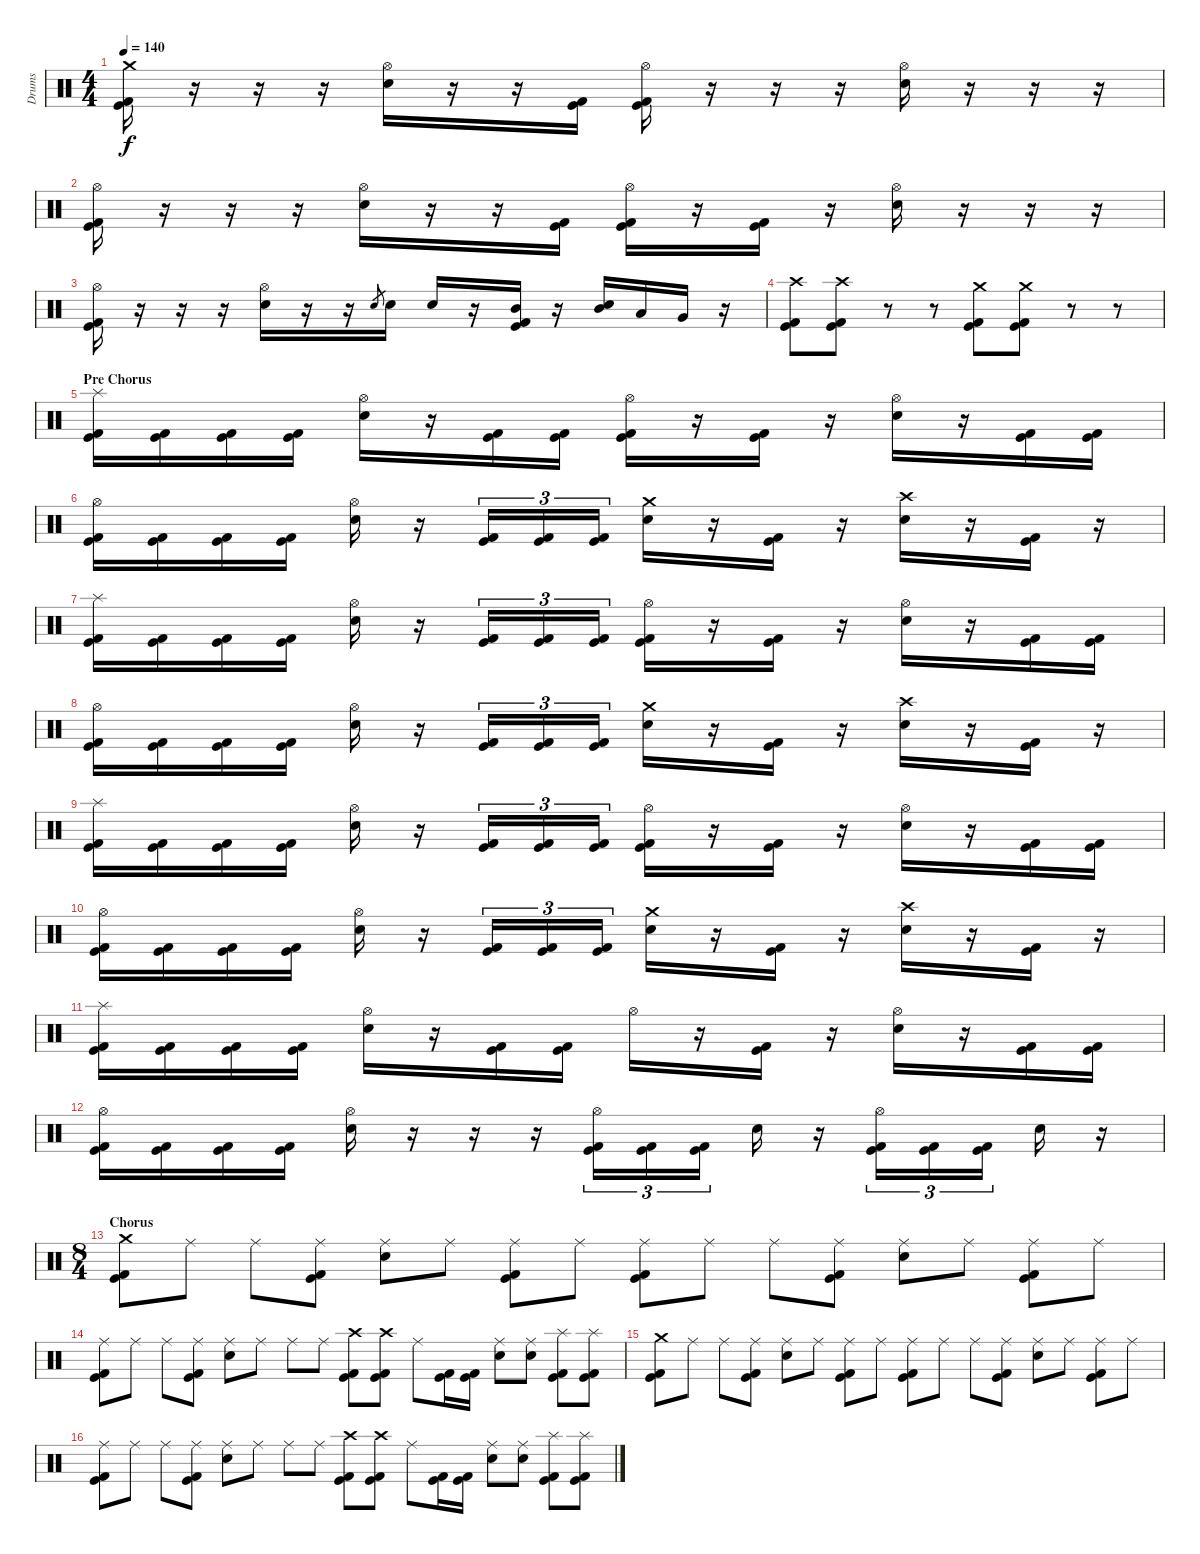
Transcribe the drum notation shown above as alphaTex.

\track ("Drums" "Drums") {instrument percussion}
\staff {score}
\articulation defaults
\ts (4 4)
\tempo 140
\clef neutral
\ks c
("Crash medium (hit)" "Kick (hit)" "Kick (hit) 2").16{dy f} r.16 r.16 r.16 ("Hi-Hat (open)" "Electric Snare (hit)").16 r.16 r.16 ("Kick (hit)" "Kick (hit) 2").16 ("Hi-Hat (open)" "Kick (hit)" "Kick (hit) 2").16 r.16 r.16 r.16 ("Hi-Hat (open)" "Electric Snare (hit)").16 r.16 r.16 r.16 |
("Hi-Hat (open)" "Kick (hit)" "Kick (hit) 2").16 r.16 r.16 r.16 ("Hi-Hat (open)" "Electric Snare (hit)").16 r.16 r.16 ("Kick (hit)" "Kick (hit) 2").16 ("Hi-Hat (open)" "Kick (hit)" "Kick (hit) 2").16 r.16 ("Kick (hit)" "Kick (hit) 2").16 r.16 ("Hi-Hat (open)" "Electric Snare (hit)").16 r.16 r.16 r.16 |
("Hi-Hat (open)" "Kick (hit)" "Kick (hit) 2").16 r.16 r.16 r.16 ("Hi-Hat (open)" "Electric Snare (hit)").16 r.16 r.16 "Electric Snare (hit)".8{gr} "Electric Snare (hit)".16 "Electric Snare (hit)".16 r.16 ("Mid Tom (hit)" "Kick (hit)" "Kick (hit) 2").16 r.16 ("Mid Tom (hit)" "Electric Snare (hit)").16 "Low Tom (hit)".16 "Very Low Tom (hit)".16 r.16 |
("Crash high (hit)" "Kick (hit)" "Kick (hit) 2").8 ("Crash high (hit)" "Kick (hit)" "Kick (hit) 2").8 r.8 r.8 ("Crash medium (hit)" "Kick (hit)" "Kick (hit) 2").8 ("Crash medium (hit)" "Kick (hit)" "Kick (hit) 2").8 r.8 r.8 |
\section ("" "Pre Chorus")
("Splash (hit)" "Kick (hit)" "Kick (hit) 2").16 ("Kick (hit)" "Kick (hit) 2").16 ("Kick (hit)" "Kick (hit) 2").16 ("Kick (hit)" "Kick (hit) 2").16 ("Hi-Hat (open)" "Electric Snare (hit)").16 r.16 ("Kick (hit)" "Kick (hit) 2").16 ("Kick (hit)" "Kick (hit) 2").16 ("Hi-Hat (open)" "Kick (hit)" "Kick (hit) 2").16 r.16 ("Kick (hit)" "Kick (hit) 2").16 r.16 ("Hi-Hat (open)" "Electric Snare (hit)").16 r.16 ("Kick (hit)" "Kick (hit) 2").16 ("Kick (hit)" "Kick (hit) 2").16 |
("Hi-Hat (open)" "Kick (hit)" "Kick (hit) 2").16 ("Kick (hit)" "Kick (hit) 2").16 ("Kick (hit)" "Kick (hit) 2").16 ("Kick (hit)" "Kick (hit) 2").16 ("Hi-Hat (open)" "Electric Snare (hit)").16 r.16 ("Kick (hit)" "Kick (hit) 2").16{tu (3 2)} ("Kick (hit)" "Kick (hit) 2").16{tu (3 2)} ("Kick (hit)" "Kick (hit) 2").16{tu (3 2)} ("Crash medium (hit)" "Electric Snare (hit)").16 r.16 ("Kick (hit)" "Kick (hit) 2").16 r.16 ("Crash high (hit)" "Electric Snare (hit)").16 r.16 ("Kick (hit)" "Kick (hit) 2").16 r.16 |
("Splash (hit)" "Kick (hit)" "Kick (hit) 2").16 ("Kick (hit)" "Kick (hit) 2").16 ("Kick (hit)" "Kick (hit) 2").16 ("Kick (hit)" "Kick (hit) 2").16 ("Hi-Hat (open)" "Electric Snare (hit)").16 r.16 ("Kick (hit)" "Kick (hit) 2").16{tu (3 2)} ("Kick (hit)" "Kick (hit) 2").16{tu (3 2)} ("Kick (hit)" "Kick (hit) 2").16{tu (3 2)} ("Hi-Hat (open)" "Kick (hit)" "Kick (hit) 2").16 r.16 ("Kick (hit)" "Kick (hit) 2").16 r.16 ("Hi-Hat (open)" "Electric Snare (hit)").16 r.16 ("Kick (hit)" "Kick (hit) 2").16 ("Kick (hit)" "Kick (hit) 2").16 |
("Hi-Hat (open)" "Kick (hit)" "Kick (hit) 2").16 ("Kick (hit)" "Kick (hit) 2").16 ("Kick (hit)" "Kick (hit) 2").16 ("Kick (hit)" "Kick (hit) 2").16 ("Hi-Hat (open)" "Electric Snare (hit)").16 r.16 ("Kick (hit)" "Kick (hit) 2").16{tu (3 2)} ("Kick (hit)" "Kick (hit) 2").16{tu (3 2)} ("Kick (hit)" "Kick (hit) 2").16{tu (3 2)} ("Crash medium (hit)" "Electric Snare (hit)").16 r.16 ("Kick (hit)" "Kick (hit) 2").16 r.16 ("Crash high (hit)" "Electric Snare (hit)").16 r.16 ("Kick (hit)" "Kick (hit) 2").16 r.16 |
("Splash (hit)" "Kick (hit)" "Kick (hit) 2").16 ("Kick (hit)" "Kick (hit) 2").16 ("Kick (hit)" "Kick (hit) 2").16 ("Kick (hit)" "Kick (hit) 2").16 ("Hi-Hat (open)" "Electric Snare (hit)").16 r.16 ("Kick (hit)" "Kick (hit) 2").16{tu (3 2)} ("Kick (hit)" "Kick (hit) 2").16{tu (3 2)} ("Kick (hit)" "Kick (hit) 2").16{tu (3 2)} ("Hi-Hat (open)" "Kick (hit)" "Kick (hit) 2").16 r.16 ("Kick (hit)" "Kick (hit) 2").16 r.16 ("Hi-Hat (open)" "Electric Snare (hit)").16 r.16 ("Kick (hit)" "Kick (hit) 2").16 ("Kick (hit)" "Kick (hit) 2").16 |
("Hi-Hat (open)" "Kick (hit)" "Kick (hit) 2").16 ("Kick (hit)" "Kick (hit) 2").16 ("Kick (hit)" "Kick (hit) 2").16 ("Kick (hit)" "Kick (hit) 2").16 ("Hi-Hat (open)" "Electric Snare (hit)").16 r.16 ("Kick (hit)" "Kick (hit) 2").16{tu (3 2)} ("Kick (hit)" "Kick (hit) 2").16{tu (3 2)} ("Kick (hit)" "Kick (hit) 2").16{tu (3 2)} ("Crash medium (hit)" "Electric Snare (hit)").16 r.16 ("Kick (hit)" "Kick (hit) 2").16 r.16 ("Crash high (hit)" "Electric Snare (hit)").16 r.16 ("Kick (hit)" "Kick (hit) 2").16 r.16 |
("Splash (hit)" "Kick (hit)" "Kick (hit) 2").16 ("Kick (hit)" "Kick (hit) 2").16 ("Kick (hit)" "Kick (hit) 2").16 ("Kick (hit)" "Kick (hit) 2").16 ("Hi-Hat (open)" "Electric Snare (hit)").16 r.16 ("Kick (hit)" "Kick (hit) 2").16 ("Kick (hit)" "Kick (hit) 2").16 "Hi-Hat (open)".16 r.16 ("Kick (hit)" "Kick (hit) 2").16 r.16 ("Hi-Hat (open)" "Electric Snare (hit)").16 r.16 ("Kick (hit)" "Kick (hit) 2").16 ("Kick (hit)" "Kick (hit) 2").16 |
("Hi-Hat (open)" "Kick (hit)" "Kick (hit) 2").16 ("Kick (hit)" "Kick (hit) 2").16 ("Kick (hit)" "Kick (hit) 2").16 ("Kick (hit)" "Kick (hit) 2").16 ("Hi-Hat (open)" "Electric Snare (hit)").16 r.16 r.16 r.16 ("Hi-Hat (open)" "Kick (hit)" "Kick (hit) 2").16{tu (3 2)} ("Kick (hit)" "Kick (hit) 2").16{tu (3 2)} ("Kick (hit)" "Kick (hit) 2").16{tu (3 2)} "Electric Snare (hit)".16 r.16 ("Hi-Hat (open)" "Kick (hit)" "Kick (hit) 2").16{tu (3 2)} ("Kick (hit)" "Kick (hit) 2").16{tu (3 2)} ("Kick (hit)" "Kick (hit) 2").16{tu (3 2)} "Electric Snare (hit)".16 r.16 |
\ts (8 4)
\section ("" "Chorus")
("Crash medium (hit)" "Kick (hit)" "Kick (hit) 2").8 "Ride (middle)".8 "Ride (middle)".8 ("Ride (middle)" "Kick (hit)" "Kick (hit) 2").8 ("Ride (middle)" "Electric Snare (hit)").8 "Ride (middle)".8 ("Ride (middle)" "Kick (hit)" "Kick (hit) 2").8 "Ride (middle)".8 ("Ride (middle)" "Kick (hit)" "Kick (hit) 2").8 "Ride (middle)".8 "Ride (middle)".8 ("Ride (middle)" "Kick (hit)" "Kick (hit) 2").8 ("Ride (middle)" "Electric Snare (hit)").8 "Ride (middle)".8 ("Ride (middle)" "Kick (hit)" "Kick (hit) 2").8 "Ride (middle)".8 |
("Ride (middle)" "Kick (hit)" "Kick (hit) 2").8 "Ride (middle)".8 "Ride (middle)".8 ("Ride (middle)" "Kick (hit)" "Kick (hit) 2").8 ("Ride (middle)" "Electric Snare (hit)").8 "Ride (middle)".8 "Ride (middle)".8 "Ride (middle)".8 ("Crash high (hit)" "Kick (hit)" "Kick (hit) 2").8 ("Crash high (hit)" "Kick (hit)" "Kick (hit) 2").8 "Ride (middle)".8 ("Kick (hit)" "Kick (hit) 2").16 ("Kick (hit)" "Kick (hit) 2").16 ("Ride (middle)" "Electric Snare (hit)").8 ("Ride (middle)" "Electric Snare (hit)").8 ("Splash (hit)" "Kick (hit)" "Kick (hit) 2").8 ("Splash (hit)" "Kick (hit)" "Kick (hit) 2").8 |
("Crash medium (hit)" "Kick (hit)" "Kick (hit) 2").8 "Ride (middle)".8 "Ride (middle)".8 ("Ride (middle)" "Kick (hit)" "Kick (hit) 2").8 ("Ride (middle)" "Electric Snare (hit)").8 "Ride (middle)".8 ("Ride (middle)" "Kick (hit)" "Kick (hit) 2").8 "Ride (middle)".8 ("Ride (middle)" "Kick (hit)" "Kick (hit) 2").8 "Ride (middle)".8 "Ride (middle)".8 ("Ride (middle)" "Kick (hit)" "Kick (hit) 2").8 ("Ride (middle)" "Electric Snare (hit)").8 "Ride (middle)".8 ("Ride (middle)" "Kick (hit)" "Kick (hit) 2").8 "Ride (middle)".8 |
("Ride (middle)" "Kick (hit)" "Kick (hit) 2").8 "Ride (middle)".8 "Ride (middle)".8 ("Ride (middle)" "Kick (hit)" "Kick (hit) 2").8 ("Ride (middle)" "Electric Snare (hit)").8 "Ride (middle)".8 "Ride (middle)".8 "Ride (middle)".8 ("Crash high (hit)" "Kick (hit)" "Kick (hit) 2").8 ("Crash high (hit)" "Kick (hit)" "Kick (hit) 2").8 "Ride (middle)".8 ("Kick (hit)" "Kick (hit) 2").16 ("Kick (hit)" "Kick (hit) 2").16 ("Ride (middle)" "Electric Snare (hit)").8 ("Ride (middle)" "Electric Snare (hit)").8 ("Splash (hit)" "Kick (hit)" "Kick (hit) 2").8 ("Splash (hit)" "Kick (hit)" "Kick (hit) 2").8
